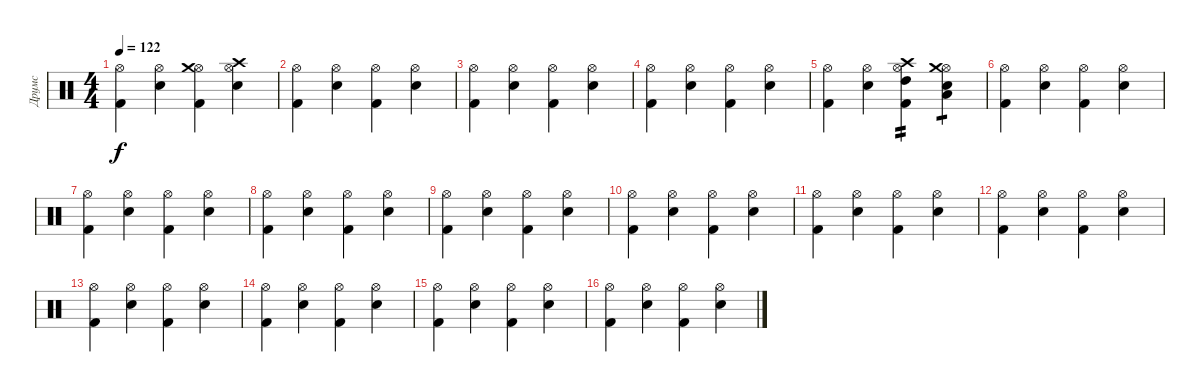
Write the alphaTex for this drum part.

\track ("Друмс" "Друмс") {instrument percussion}
\staff {score}
\articulation defaults
\ts (4 4)
\tempo 122
\clef neutral
\ks c
("Hi-Hat (open)" "Kick (hit) 2").4{dy f} ("Hi-Hat (open)" "Snare (hit) 2").4 ("Hi-Hat (open)" "Kick (hit) 2" "Crash medium (hit)").4 ("Hi-Hat (open)" "Snare (hit) 2" "Crash high (hit)").4 |
("Hi-Hat (open)" "Kick (hit) 2").4 ("Hi-Hat (open)" "Snare (hit) 2").4 ("Hi-Hat (open)" "Kick (hit) 2").4 ("Hi-Hat (open)" "Snare (hit) 2").4 |
("Hi-Hat (open)" "Kick (hit) 2").4 ("Hi-Hat (open)" "Snare (hit) 2").4 ("Hi-Hat (open)" "Kick (hit) 2").4 ("Hi-Hat (open)" "Snare (hit) 2").4 |
("Hi-Hat (open)" "Kick (hit) 2").4 ("Hi-Hat (open)" "Snare (hit) 2").4 ("Hi-Hat (open)" "Kick (hit) 2").4 ("Hi-Hat (open)" "Snare (hit) 2").4 |
("Hi-Hat (open)" "Kick (hit) 2").4 ("Hi-Hat (open)" "Snare (hit) 2").4 ("Hi-Hat (open)" "Kick (hit) 2" "Crash high (hit)" "High Tom (hit)").4{tp 2} ("Hi-Hat (open)" "Snare (hit) 2" "Crash medium (hit)" "Low Tom (hit)").4{tp 1} |
("Hi-Hat (open)" "Kick (hit) 2").4 ("Hi-Hat (open)" "Snare (hit) 2").4 ("Hi-Hat (open)" "Kick (hit) 2").4 ("Hi-Hat (open)" "Snare (hit) 2").4 |
("Hi-Hat (open)" "Kick (hit) 2").4 ("Hi-Hat (open)" "Snare (hit) 2").4 ("Hi-Hat (open)" "Kick (hit) 2").4 ("Hi-Hat (open)" "Snare (hit) 2").4 |
("Hi-Hat (open)" "Kick (hit) 2").4 ("Hi-Hat (open)" "Snare (hit) 2").4 ("Hi-Hat (open)" "Kick (hit) 2").4 ("Hi-Hat (open)" "Snare (hit) 2").4 |
("Hi-Hat (open)" "Kick (hit) 2").4 ("Hi-Hat (open)" "Snare (hit) 2").4 ("Hi-Hat (open)" "Kick (hit) 2").4 ("Hi-Hat (open)" "Snare (hit) 2").4 |
("Hi-Hat (open)" "Kick (hit) 2").4 ("Hi-Hat (open)" "Snare (hit) 2").4 ("Hi-Hat (open)" "Kick (hit) 2").4 ("Hi-Hat (open)" "Snare (hit) 2").4 |
("Hi-Hat (open)" "Kick (hit) 2").4 ("Hi-Hat (open)" "Snare (hit) 2").4 ("Hi-Hat (open)" "Kick (hit) 2").4 ("Hi-Hat (open)" "Snare (hit) 2").4 |
("Hi-Hat (open)" "Kick (hit) 2").4 ("Hi-Hat (open)" "Snare (hit) 2").4 ("Hi-Hat (open)" "Kick (hit) 2").4 ("Hi-Hat (open)" "Snare (hit) 2").4 |
("Hi-Hat (open)" "Kick (hit) 2").4 ("Hi-Hat (open)" "Snare (hit) 2").4 ("Hi-Hat (open)" "Kick (hit) 2").4 ("Hi-Hat (open)" "Snare (hit) 2").4 |
("Hi-Hat (open)" "Kick (hit) 2").4 ("Hi-Hat (open)" "Snare (hit) 2").4 ("Hi-Hat (open)" "Kick (hit) 2").4 ("Hi-Hat (open)" "Snare (hit) 2").4 |
("Hi-Hat (open)" "Kick (hit) 2").4 ("Hi-Hat (open)" "Snare (hit) 2").4 ("Hi-Hat (open)" "Kick (hit) 2").4 ("Hi-Hat (open)" "Snare (hit) 2").4 |
("Hi-Hat (open)" "Kick (hit) 2").4 ("Hi-Hat (open)" "Snare (hit) 2").4 ("Hi-Hat (open)" "Kick (hit) 2").4 ("Hi-Hat (open)" "Snare (hit) 2").4
